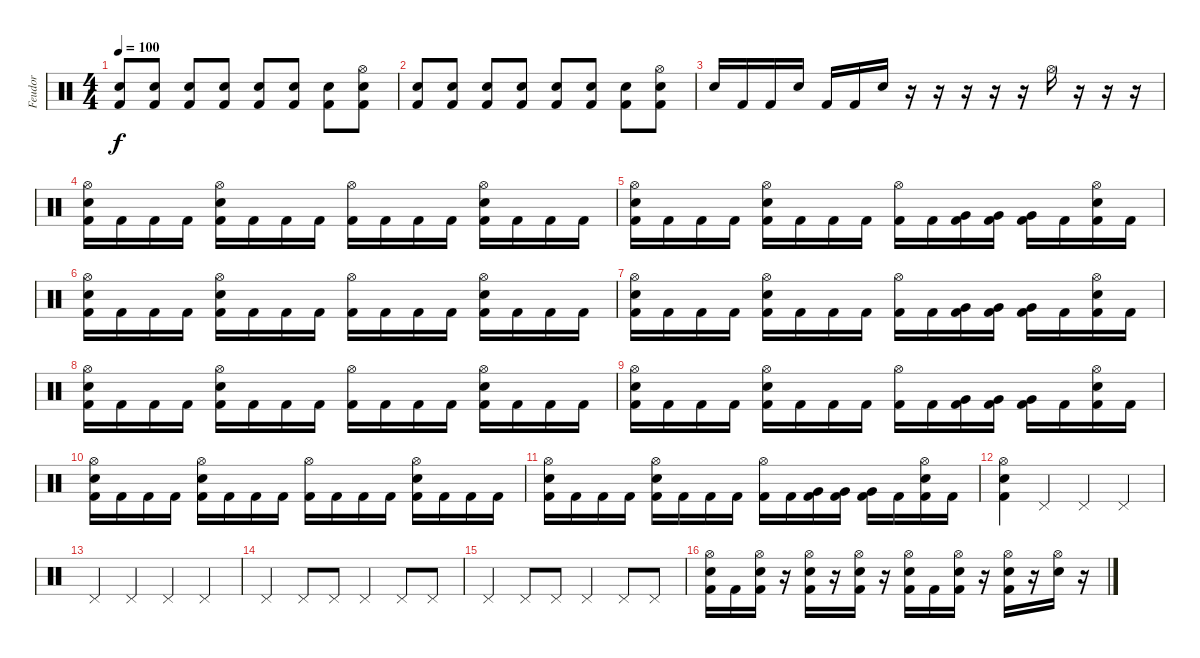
\track ("Feudor" "Feudor") {instrument percussion}
\staff {score}
\articulation defaults
\ts (4 4)
\tempo 100
\clef neutral
\ks c
("Electric Snare (hit)" "Kick (hit) 2").8{dy f} ("Electric Snare (hit)" "Kick (hit) 2").8 ("Electric Snare (hit)" "Kick (hit) 2").8 ("Electric Snare (hit)" "Kick (hit) 2").8 ("Electric Snare (hit)" "Kick (hit) 2").8 ("Electric Snare (hit)" "Kick (hit) 2").8 ("Electric Snare (hit)" "Kick (hit) 2").8 ("Hi-Hat (open)" "Electric Snare (hit)" "Kick (hit) 2").8 |
("Electric Snare (hit)" "Kick (hit) 2").8 ("Electric Snare (hit)" "Kick (hit) 2").8 ("Electric Snare (hit)" "Kick (hit) 2").8 ("Electric Snare (hit)" "Kick (hit) 2").8 ("Electric Snare (hit)" "Kick (hit) 2").8 ("Electric Snare (hit)" "Kick (hit) 2").8 ("Electric Snare (hit)" "Kick (hit) 2").8 ("Hi-Hat (open)" "Electric Snare (hit)" "Kick (hit) 2").8 |
"Electric Snare (hit)".16 "Kick (hit) 2".16 "Kick (hit) 2".16 "Electric Snare (hit)".16 "Kick (hit) 2".16 "Kick (hit) 2".16 "Electric Snare (hit)".16 r.16 r.16 r.16 r.16 r.16 "Hi-Hat (open)".16 r.16 r.16 r.16 |
("Hi-Hat (open)" "Electric Snare (hit)" "Kick (hit) 2").16 "Kick (hit) 2".16 "Kick (hit) 2".16 "Kick (hit) 2".16 ("Hi-Hat (open)" "Electric Snare (hit)" "Kick (hit) 2").16 "Kick (hit) 2".16 "Kick (hit) 2".16 "Kick (hit) 2".16 ("Hi-Hat (open)" "Kick (hit) 2").16 "Kick (hit) 2".16 "Kick (hit) 2".16 "Kick (hit) 2".16 ("Hi-Hat (open)" "Electric Snare (hit)" "Kick (hit) 2").16 "Kick (hit) 2".16 "Kick (hit) 2".16 "Kick (hit) 2".16 |
("Hi-Hat (open)" "Electric Snare (hit)" "Kick (hit) 2").16 "Kick (hit) 2".16 "Kick (hit) 2".16 "Kick (hit) 2".16 ("Hi-Hat (open)" "Electric Snare (hit)" "Kick (hit) 2").16 "Kick (hit) 2".16 "Kick (hit) 2".16 "Kick (hit) 2".16 ("Hi-Hat (open)" "Kick (hit) 2").16 "Kick (hit) 2".16 ("Very Low Tom (hit)" "Kick (hit) 2").16 ("Very Low Tom (hit)" "Kick (hit) 2").16 ("Very Low Tom (hit)" "Kick (hit) 2").16 "Kick (hit) 2".16 ("Hi-Hat (open)" "Electric Snare (hit)" "Kick (hit) 2").16 "Kick (hit) 2".16 |
("Hi-Hat (open)" "Electric Snare (hit)" "Kick (hit) 2").16 "Kick (hit) 2".16 "Kick (hit) 2".16 "Kick (hit) 2".16 ("Hi-Hat (open)" "Electric Snare (hit)" "Kick (hit) 2").16 "Kick (hit) 2".16 "Kick (hit) 2".16 "Kick (hit) 2".16 ("Hi-Hat (open)" "Kick (hit) 2").16 "Kick (hit) 2".16 "Kick (hit) 2".16 "Kick (hit) 2".16 ("Hi-Hat (open)" "Electric Snare (hit)" "Kick (hit) 2").16 "Kick (hit) 2".16 "Kick (hit) 2".16 "Kick (hit) 2".16 |
("Hi-Hat (open)" "Electric Snare (hit)" "Kick (hit) 2").16 "Kick (hit) 2".16 "Kick (hit) 2".16 "Kick (hit) 2".16 ("Hi-Hat (open)" "Electric Snare (hit)" "Kick (hit) 2").16 "Kick (hit) 2".16 "Kick (hit) 2".16 "Kick (hit) 2".16 ("Hi-Hat (open)" "Kick (hit) 2").16 "Kick (hit) 2".16 ("Very Low Tom (hit)" "Kick (hit) 2").16 ("Very Low Tom (hit)" "Kick (hit) 2").16 ("Very Low Tom (hit)" "Kick (hit) 2").16 "Kick (hit) 2".16 ("Hi-Hat (open)" "Electric Snare (hit)" "Kick (hit) 2").16 "Kick (hit) 2".16 |
("Hi-Hat (open)" "Electric Snare (hit)" "Kick (hit) 2").16 "Kick (hit) 2".16 "Kick (hit) 2".16 "Kick (hit) 2".16 ("Hi-Hat (open)" "Electric Snare (hit)" "Kick (hit) 2").16 "Kick (hit) 2".16 "Kick (hit) 2".16 "Kick (hit) 2".16 ("Hi-Hat (open)" "Kick (hit) 2").16 "Kick (hit) 2".16 "Kick (hit) 2".16 "Kick (hit) 2".16 ("Hi-Hat (open)" "Electric Snare (hit)" "Kick (hit) 2").16 "Kick (hit) 2".16 "Kick (hit) 2".16 "Kick (hit) 2".16 |
("Hi-Hat (open)" "Electric Snare (hit)" "Kick (hit) 2").16 "Kick (hit) 2".16 "Kick (hit) 2".16 "Kick (hit) 2".16 ("Hi-Hat (open)" "Electric Snare (hit)" "Kick (hit) 2").16 "Kick (hit) 2".16 "Kick (hit) 2".16 "Kick (hit) 2".16 ("Hi-Hat (open)" "Kick (hit) 2").16 "Kick (hit) 2".16 ("Very Low Tom (hit)" "Kick (hit) 2").16 ("Very Low Tom (hit)" "Kick (hit) 2").16 ("Very Low Tom (hit)" "Kick (hit) 2").16 "Kick (hit) 2".16 ("Hi-Hat (open)" "Electric Snare (hit)" "Kick (hit) 2").16 "Kick (hit) 2".16 |
("Hi-Hat (open)" "Electric Snare (hit)" "Kick (hit) 2").16 "Kick (hit) 2".16 "Kick (hit) 2".16 "Kick (hit) 2".16 ("Hi-Hat (open)" "Electric Snare (hit)" "Kick (hit) 2").16 "Kick (hit) 2".16 "Kick (hit) 2".16 "Kick (hit) 2".16 ("Hi-Hat (open)" "Kick (hit) 2").16 "Kick (hit) 2".16 "Kick (hit) 2".16 "Kick (hit) 2".16 ("Hi-Hat (open)" "Electric Snare (hit)" "Kick (hit) 2").16 "Kick (hit) 2".16 "Kick (hit) 2".16 "Kick (hit) 2".16 |
("Hi-Hat (open)" "Electric Snare (hit)" "Kick (hit) 2").16 "Kick (hit) 2".16 "Kick (hit) 2".16 "Kick (hit) 2".16 ("Hi-Hat (open)" "Electric Snare (hit)" "Kick (hit) 2").16 "Kick (hit) 2".16 "Kick (hit) 2".16 "Kick (hit) 2".16 ("Hi-Hat (open)" "Kick (hit) 2").16 "Kick (hit) 2".16 ("Very Low Tom (hit)" "Kick (hit) 2").16 ("Very Low Tom (hit)" "Kick (hit) 2").16 ("Very Low Tom (hit)" "Kick (hit) 2").16 "Kick (hit) 2".16 ("Hi-Hat (open)" "Electric Snare (hit)" "Kick (hit) 2").16 "Kick (hit) 2".16 |
("Hi-Hat (open)" "Electric Snare (hit)" "Kick (hit) 2").4 "Pedal Hi-Hat (hit)".4 "Pedal Hi-Hat (hit)".4 "Pedal Hi-Hat (hit)".4 |
"Pedal Hi-Hat (hit)".4 "Pedal Hi-Hat (hit)".4 "Pedal Hi-Hat (hit)".4 "Pedal Hi-Hat (hit)".4 |
"Pedal Hi-Hat (hit)".4 "Pedal Hi-Hat (hit)".8 "Pedal Hi-Hat (hit)".8 "Pedal Hi-Hat (hit)".4 "Pedal Hi-Hat (hit)".8 "Pedal Hi-Hat (hit)".8 |
"Pedal Hi-Hat (hit)".4 "Pedal Hi-Hat (hit)".8 "Pedal Hi-Hat (hit)".8 "Pedal Hi-Hat (hit)".4 "Pedal Hi-Hat (hit)".8 "Pedal Hi-Hat (hit)".8 |
("Hi-Hat (open)" "Electric Snare (hit)" "Kick (hit) 2").16 "Kick (hit) 2".16 ("Hi-Hat (open)" "Electric Snare (hit)" "Kick (hit) 2").16 r.16 ("Hi-Hat (open)" "Electric Snare (hit)" "Kick (hit) 2").16 r.16 ("Hi-Hat (open)" "Electric Snare (hit)" "Kick (hit) 2").16 r.16 ("Hi-Hat (open)" "Electric Snare (hit)" "Kick (hit) 2").16 "Kick (hit) 2".16 ("Hi-Hat (open)" "Electric Snare (hit)" "Kick (hit) 2").16 r.16 ("Hi-Hat (open)" "Electric Snare (hit)" "Kick (hit) 2").16 r.16 ("Hi-Hat (open)" "Electric Snare (hit)").16 r.16
